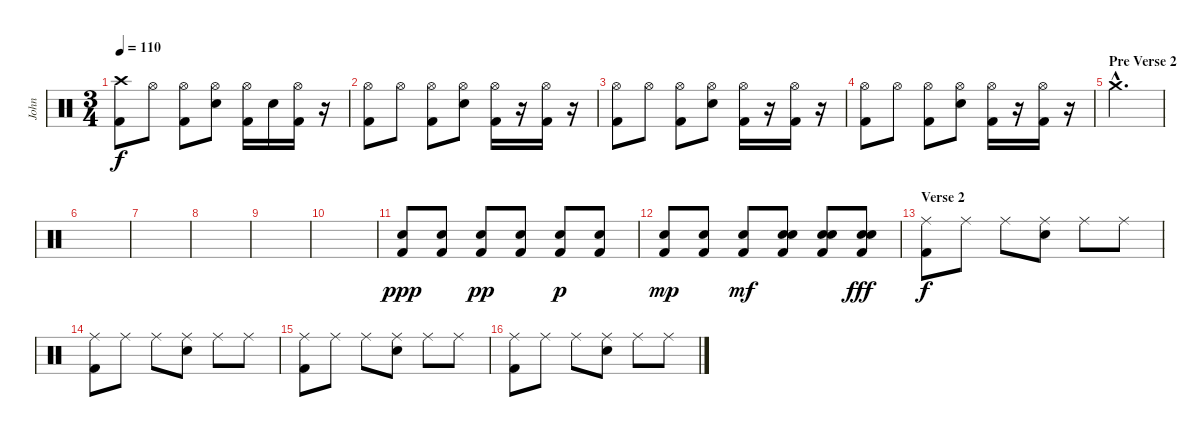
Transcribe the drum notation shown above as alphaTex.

\track ("John" "John") {instrument percussion}
\staff {score}
\articulation defaults
\ts (3 4)
\tempo 110
\clef neutral
\ks c
("Crash high (hit)" "Kick (hit) 2").8{dy f} "Hi-Hat (open)".8 ("Hi-Hat (open)" "Kick (hit) 2").8 ("Hi-Hat (open)" "Electric Snare (hit)").8 ("Hi-Hat (open)" "Kick (hit) 2").16 "Electric Snare (hit)".16 ("Hi-Hat (open)" "Kick (hit) 2").16 r.16 |
("Hi-Hat (open)" "Kick (hit) 2").8 "Hi-Hat (open)".8 ("Hi-Hat (open)" "Kick (hit) 2").8 ("Hi-Hat (open)" "Electric Snare (hit)").8 ("Hi-Hat (open)" "Kick (hit) 2").16 r.16 ("Hi-Hat (open)" "Kick (hit) 2").16 r.16 |
("Hi-Hat (open)" "Kick (hit) 2").8 "Hi-Hat (open)".8 ("Hi-Hat (open)" "Kick (hit) 2").8 ("Hi-Hat (open)" "Electric Snare (hit)").8 ("Hi-Hat (open)" "Kick (hit) 2").16 r.16 ("Hi-Hat (open)" "Kick (hit) 2").16 r.16 |
("Hi-Hat (open)" "Kick (hit) 2").8 "Hi-Hat (open)".8 ("Hi-Hat (open)" "Kick (hit) 2").8 ("Hi-Hat (open)" "Electric Snare (hit)").8 ("Hi-Hat (open)" "Kick (hit) 2").16 r.16 ("Hi-Hat (open)" "Kick (hit) 2").16 r.16 |
\section ("" "Pre Verse 2")
"Crash medium (hit)"{hac}.2{d} |
|
|
|
|
|
("Electric Snare (hit)" "Kick (hit) 2").8{dy ppp} ("Electric Snare (hit)" "Kick (hit) 2").8 ("Electric Snare (hit)" "Kick (hit) 2").8{dy pp} ("Electric Snare (hit)" "Kick (hit) 2").8 ("Electric Snare (hit)" "Kick (hit) 2").8{dy p} ("Electric Snare (hit)" "Kick (hit) 2").8 |
("Electric Snare (hit)" "Kick (hit) 2").8{dy mp} ("Electric Snare (hit)" "Kick (hit) 2").8 ("Electric Snare (hit)" "Kick (hit) 2").8{dy mf} ("Electric Snare (hit)" "Electric Snare (hit)" "Kick (hit) 2").8 ("Electric Snare (hit)" "Electric Snare (hit)" "Kick (hit) 2").8 ("Electric Snare (hit)" "Electric Snare (hit)" "Kick (hit) 2").8{dy fff} |
\section ("" "Verse 2")
("Ride (middle)" "Kick (hit) 2").8{dy f} "Ride (middle)".8 "Ride (middle)".8 ("Ride (middle)" "Electric Snare (hit)").8 "Ride (middle)".8 "Ride (middle)".8 |
("Ride (middle)" "Kick (hit) 2").8 "Ride (middle)".8 "Ride (middle)".8 ("Ride (middle)" "Electric Snare (hit)").8 "Ride (middle)".8 "Ride (middle)".8 |
("Ride (middle)" "Kick (hit) 2").8 "Ride (middle)".8 "Ride (middle)".8 ("Ride (middle)" "Electric Snare (hit)").8 "Ride (middle)".8 "Ride (middle)".8 |
("Ride (middle)" "Kick (hit) 2").8 "Ride (middle)".8 "Ride (middle)".8 ("Ride (middle)" "Electric Snare (hit)").8 "Ride (middle)".8 "Ride (middle)".8
